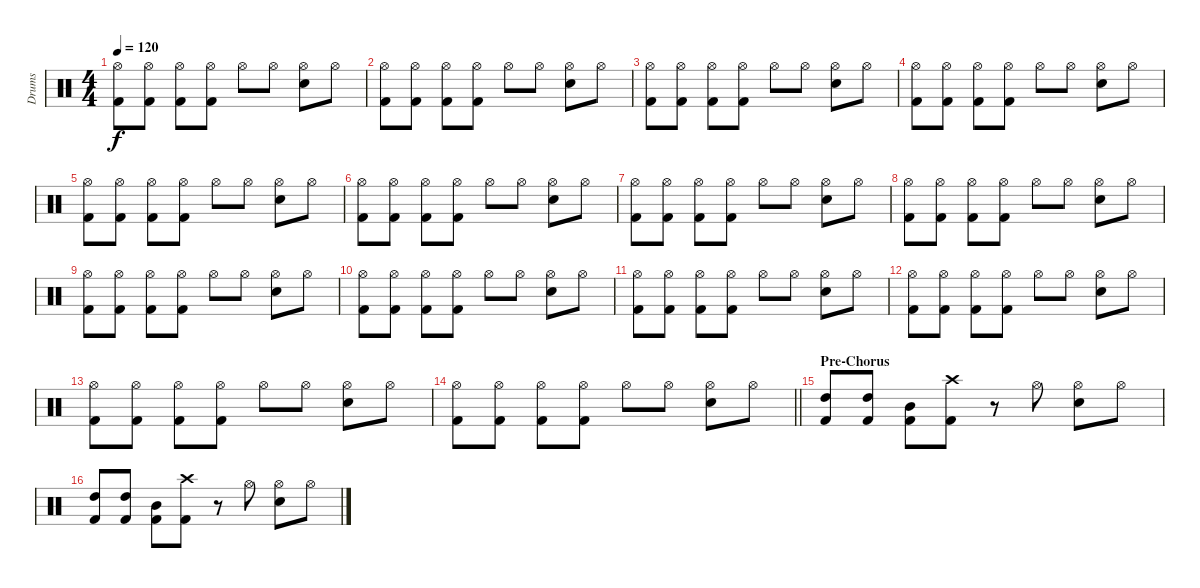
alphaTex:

\track ("Drums" "Drums") {instrument percussion}
\staff {score}
\articulation defaults
\ts (4 4)
\tempo 120
\clef neutral
\ks c
("Hi-Hat (open)" "Kick (hit) 2").8{dy f} ("Hi-Hat (open)" "Kick (hit) 2").8 ("Hi-Hat (open)" "Kick (hit) 2").8 ("Hi-Hat (open)" "Kick (hit) 2").8 "Hi-Hat (open)".8 "Hi-Hat (open)".8 ("Hi-Hat (open)" "Snare (hit) 2").8 "Hi-Hat (open)".8 |
("Hi-Hat (open)" "Kick (hit) 2").8 ("Hi-Hat (open)" "Kick (hit) 2").8 ("Hi-Hat (open)" "Kick (hit) 2").8 ("Hi-Hat (open)" "Kick (hit) 2").8 "Hi-Hat (open)".8 "Hi-Hat (open)".8 ("Hi-Hat (open)" "Snare (hit) 2").8 "Hi-Hat (open)".8 |
("Hi-Hat (open)" "Kick (hit) 2").8 ("Hi-Hat (open)" "Kick (hit) 2").8 ("Hi-Hat (open)" "Kick (hit) 2").8 ("Hi-Hat (open)" "Kick (hit) 2").8 "Hi-Hat (open)".8 "Hi-Hat (open)".8 ("Hi-Hat (open)" "Snare (hit) 2").8 "Hi-Hat (open)".8 |
("Hi-Hat (open)" "Kick (hit) 2").8 ("Hi-Hat (open)" "Kick (hit) 2").8 ("Hi-Hat (open)" "Kick (hit) 2").8 ("Hi-Hat (open)" "Kick (hit) 2").8 "Hi-Hat (open)".8 "Hi-Hat (open)".8 ("Hi-Hat (open)" "Snare (hit) 2").8 "Hi-Hat (open)".8 |
("Hi-Hat (open)" "Kick (hit) 2").8 ("Hi-Hat (open)" "Kick (hit) 2").8 ("Hi-Hat (open)" "Kick (hit) 2").8 ("Hi-Hat (open)" "Kick (hit) 2").8 "Hi-Hat (open)".8 "Hi-Hat (open)".8 ("Hi-Hat (open)" "Snare (hit) 2").8 "Hi-Hat (open)".8 |
("Hi-Hat (open)" "Kick (hit) 2").8 ("Hi-Hat (open)" "Kick (hit) 2").8 ("Hi-Hat (open)" "Kick (hit) 2").8 ("Hi-Hat (open)" "Kick (hit) 2").8 "Hi-Hat (open)".8 "Hi-Hat (open)".8 ("Hi-Hat (open)" "Snare (hit) 2").8 "Hi-Hat (open)".8 |
("Hi-Hat (open)" "Kick (hit) 2").8 ("Hi-Hat (open)" "Kick (hit) 2").8 ("Hi-Hat (open)" "Kick (hit) 2").8 ("Hi-Hat (open)" "Kick (hit) 2").8 "Hi-Hat (open)".8 "Hi-Hat (open)".8 ("Hi-Hat (open)" "Snare (hit) 2").8 "Hi-Hat (open)".8 |
("Hi-Hat (open)" "Kick (hit) 2").8 ("Hi-Hat (open)" "Kick (hit) 2").8 ("Hi-Hat (open)" "Kick (hit) 2").8 ("Hi-Hat (open)" "Kick (hit) 2").8 "Hi-Hat (open)".8 "Hi-Hat (open)".8 ("Hi-Hat (open)" "Snare (hit) 2").8 "Hi-Hat (open)".8 |
("Hi-Hat (open)" "Kick (hit) 2").8 ("Hi-Hat (open)" "Kick (hit) 2").8 ("Hi-Hat (open)" "Kick (hit) 2").8 ("Hi-Hat (open)" "Kick (hit) 2").8 "Hi-Hat (open)".8 "Hi-Hat (open)".8 ("Hi-Hat (open)" "Snare (hit) 2").8 "Hi-Hat (open)".8 |
("Hi-Hat (open)" "Kick (hit) 2").8 ("Hi-Hat (open)" "Kick (hit) 2").8 ("Hi-Hat (open)" "Kick (hit) 2").8 ("Hi-Hat (open)" "Kick (hit) 2").8 "Hi-Hat (open)".8 "Hi-Hat (open)".8 ("Hi-Hat (open)" "Snare (hit) 2").8 "Hi-Hat (open)".8 |
("Hi-Hat (open)" "Kick (hit) 2").8 ("Hi-Hat (open)" "Kick (hit) 2").8 ("Hi-Hat (open)" "Kick (hit) 2").8 ("Hi-Hat (open)" "Kick (hit) 2").8 "Hi-Hat (open)".8 "Hi-Hat (open)".8 ("Hi-Hat (open)" "Snare (hit) 2").8 "Hi-Hat (open)".8 |
("Hi-Hat (open)" "Kick (hit) 2").8 ("Hi-Hat (open)" "Kick (hit) 2").8 ("Hi-Hat (open)" "Kick (hit) 2").8 ("Hi-Hat (open)" "Kick (hit) 2").8 "Hi-Hat (open)".8 "Hi-Hat (open)".8 ("Hi-Hat (open)" "Snare (hit) 2").8 "Hi-Hat (open)".8 |
("Hi-Hat (open)" "Kick (hit) 2").8 ("Hi-Hat (open)" "Kick (hit) 2").8 ("Hi-Hat (open)" "Kick (hit) 2").8 ("Hi-Hat (open)" "Kick (hit) 2").8 "Hi-Hat (open)".8 "Hi-Hat (open)".8 ("Hi-Hat (open)" "Snare (hit) 2").8 "Hi-Hat (open)".8 |
\barLineRight lightlight
("Hi-Hat (open)" "Kick (hit) 2").8 ("Hi-Hat (open)" "Kick (hit) 2").8 ("Hi-Hat (open)" "Kick (hit) 2").8 ("Hi-Hat (open)" "Kick (hit) 2").8 "Hi-Hat (open)".8 "Hi-Hat (open)".8 ("Hi-Hat (open)" "Snare (hit) 2").8 "Hi-Hat (open)".8 |
\section ("" "Pre-Chorus")
("High Tom (hit)" "Kick (hit) 2").8 ("High Tom (hit)" "Kick (hit) 2").8 ("Mid Tom (hit)" "Kick (hit) 2").8 ("Crash high (hit)" "Kick (hit) 2").8 r.8 "Hi-Hat (open)".8 ("Hi-Hat (open)" "Snare (hit) 2").8 "Hi-Hat (open)".8 |
("High Tom (hit)" "Kick (hit) 2").8 ("High Tom (hit)" "Kick (hit) 2").8 ("Mid Tom (hit)" "Kick (hit) 2").8 ("Crash high (hit)" "Kick (hit) 2").8 r.8 "Hi-Hat (open)".8 ("Hi-Hat (open)" "Snare (hit) 2").8 "Hi-Hat (open)".8
